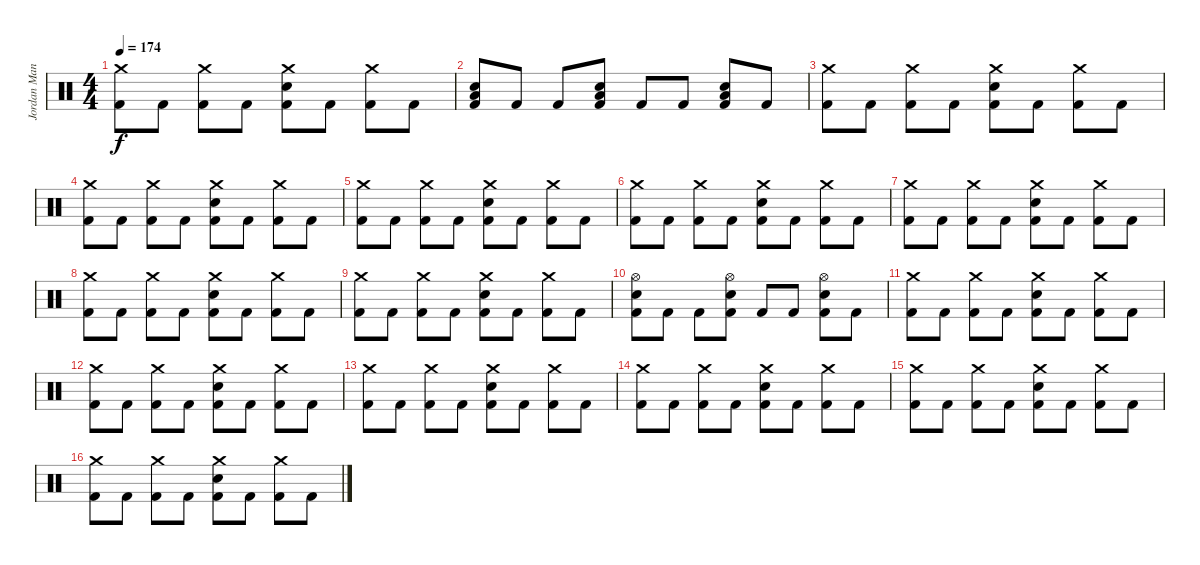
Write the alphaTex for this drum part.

\track ("Jordan Manchino (Drums)" "Jordan Man") {instrument percussion}
\staff {score}
\articulation defaults
\ts (4 4)
\tempo 174
\clef neutral
\ks c
("Crash medium (hit)" "Kick (hit) 2").8{dy f} "Kick (hit) 2".8 ("Crash medium (hit)" "Kick (hit) 2").8 "Kick (hit) 2".8 ("Crash medium (hit)" "Snare (hit) 2" "Kick (hit) 2").8 "Kick (hit) 2".8 ("Crash medium (hit)" "Kick (hit) 2").8 "Kick (hit) 2".8 |
("Low Floor Tom (hit)" "Snare (hit) 2" "Kick (hit) 2").8 "Kick (hit) 2".8 "Kick (hit) 2".8 ("Low Floor Tom (hit)" "Snare (hit) 2" "Kick (hit) 2").8 "Kick (hit) 2".8 "Kick (hit) 2".8 ("Low Floor Tom (hit)" "Snare (hit) 2" "Kick (hit) 2").8 "Kick (hit) 2".8 |
("Crash medium (hit)" "Kick (hit) 2").8 "Kick (hit) 2".8 ("Crash medium (hit)" "Kick (hit) 2").8 "Kick (hit) 2".8 ("Crash medium (hit)" "Snare (hit) 2" "Kick (hit) 2").8 "Kick (hit) 2".8 ("Crash medium (hit)" "Kick (hit) 2").8 "Kick (hit) 2".8 |
("Crash medium (hit)" "Kick (hit) 2").8 "Kick (hit) 2".8 ("Crash medium (hit)" "Kick (hit) 2").8 "Kick (hit) 2".8 ("Crash medium (hit)" "Snare (hit) 2" "Kick (hit) 2").8 "Kick (hit) 2".8 ("Crash medium (hit)" "Kick (hit) 2").8 "Kick (hit) 2".8 |
("Crash medium (hit)" "Kick (hit) 2").8 "Kick (hit) 2".8 ("Crash medium (hit)" "Kick (hit) 2").8 "Kick (hit) 2".8 ("Crash medium (hit)" "Snare (hit) 2" "Kick (hit) 2").8 "Kick (hit) 2".8 ("Crash medium (hit)" "Kick (hit) 2").8 "Kick (hit) 2".8 |
("Crash medium (hit)" "Kick (hit) 2").8 "Kick (hit) 2".8 ("Crash medium (hit)" "Kick (hit) 2").8 "Kick (hit) 2".8 ("Crash medium (hit)" "Snare (hit) 2" "Kick (hit) 2").8 "Kick (hit) 2".8 ("Crash medium (hit)" "Kick (hit) 2").8 "Kick (hit) 2".8 |
("Crash medium (hit)" "Kick (hit) 2").8 "Kick (hit) 2".8 ("Crash medium (hit)" "Kick (hit) 2").8 "Kick (hit) 2".8 ("Crash medium (hit)" "Snare (hit) 2" "Kick (hit) 2").8 "Kick (hit) 2".8 ("Crash medium (hit)" "Kick (hit) 2").8 "Kick (hit) 2".8 |
("Crash medium (hit)" "Kick (hit) 2").8 "Kick (hit) 2".8 ("Crash medium (hit)" "Kick (hit) 2").8 "Kick (hit) 2".8 ("Crash medium (hit)" "Snare (hit) 2" "Kick (hit) 2").8 "Kick (hit) 2".8 ("Crash medium (hit)" "Kick (hit) 2").8 "Kick (hit) 2".8 |
("Crash medium (hit)" "Kick (hit) 2").8 "Kick (hit) 2".8 ("Crash medium (hit)" "Kick (hit) 2").8 "Kick (hit) 2".8 ("Crash medium (hit)" "Snare (hit) 2" "Kick (hit) 2").8 "Kick (hit) 2".8 ("Crash medium (hit)" "Kick (hit) 2").8 "Kick (hit) 2".8 |
("Hi-Hat (open)" "Snare (hit) 2" "Kick (hit) 2").8 "Kick (hit) 2".8 "Kick (hit) 2".8 ("Hi-Hat (open)" "Snare (hit) 2" "Kick (hit) 2").8 "Kick (hit) 2".8 "Kick (hit) 2".8 ("Hi-Hat (open)" "Snare (hit) 2" "Kick (hit) 2").8 "Kick (hit) 2".8 |
("Crash medium (hit)" "Kick (hit) 2").8 "Kick (hit) 2".8 ("Crash medium (hit)" "Kick (hit) 2").8 "Kick (hit) 2".8 ("Crash medium (hit)" "Snare (hit) 2" "Kick (hit) 2").8 "Kick (hit) 2".8 ("Crash medium (hit)" "Kick (hit) 2").8 "Kick (hit) 2".8 |
("Crash medium (hit)" "Kick (hit) 2").8 "Kick (hit) 2".8 ("Crash medium (hit)" "Kick (hit) 2").8 "Kick (hit) 2".8 ("Crash medium (hit)" "Snare (hit) 2" "Kick (hit) 2").8 "Kick (hit) 2".8 ("Crash medium (hit)" "Kick (hit) 2").8 "Kick (hit) 2".8 |
("Crash medium (hit)" "Kick (hit) 2").8 "Kick (hit) 2".8 ("Crash medium (hit)" "Kick (hit) 2").8 "Kick (hit) 2".8 ("Crash medium (hit)" "Snare (hit) 2" "Kick (hit) 2").8 "Kick (hit) 2".8 ("Crash medium (hit)" "Kick (hit) 2").8 "Kick (hit) 2".8 |
("Crash medium (hit)" "Kick (hit) 2").8 "Kick (hit) 2".8 ("Crash medium (hit)" "Kick (hit) 2").8 "Kick (hit) 2".8 ("Crash medium (hit)" "Snare (hit) 2" "Kick (hit) 2").8 "Kick (hit) 2".8 ("Crash medium (hit)" "Kick (hit) 2").8 "Kick (hit) 2".8 |
("Crash medium (hit)" "Kick (hit) 2").8 "Kick (hit) 2".8 ("Crash medium (hit)" "Kick (hit) 2").8 "Kick (hit) 2".8 ("Crash medium (hit)" "Snare (hit) 2" "Kick (hit) 2").8 "Kick (hit) 2".8 ("Crash medium (hit)" "Kick (hit) 2").8 "Kick (hit) 2".8 |
("Crash medium (hit)" "Kick (hit) 2").8 "Kick (hit) 2".8 ("Crash medium (hit)" "Kick (hit) 2").8 "Kick (hit) 2".8 ("Crash medium (hit)" "Snare (hit) 2" "Kick (hit) 2").8 "Kick (hit) 2".8 ("Crash medium (hit)" "Kick (hit) 2").8 "Kick (hit) 2".8
